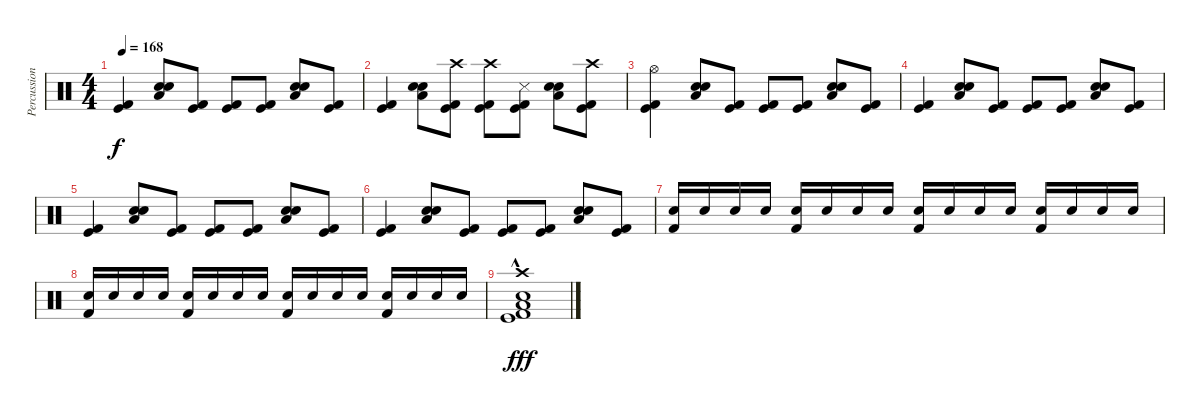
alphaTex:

\track ("Percussion" "Percussion") {instrument percussion}
\staff {score}
\articulation defaults
\ts (4 4)
\tempo 168
\clef neutral
\ks c
("Kick (hit)" "Kick (hit) 2").4{dy f} ("Electric Snare (hit)" "Low Floor Tom (hit)" "Snare (hit) 2").8 ("Kick (hit)" "Kick (hit) 2").8 ("Kick (hit)" "Kick (hit) 2").8 ("Kick (hit)" "Kick (hit) 2").8 ("Electric Snare (hit)" "Low Floor Tom (hit)" "Snare (hit) 2").8 ("Kick (hit)" "Kick (hit) 2").8 |
("Kick (hit)" "Kick (hit) 2").4 ("Electric Snare (hit)" "Low Floor Tom (hit)" "Snare (hit) 2").8 ("Crash high (hit)" "Kick (hit)" "Kick (hit) 2").8 ("Crash high (hit)" "Kick (hit)" "Kick (hit) 2").8 ("Snare (side stick) 3" "Kick (hit)" "Kick (hit) 2").8 ("Electric Snare (hit)" "Low Floor Tom (hit)" "Snare (hit) 2").8 ("Crash high (hit)" "Kick (hit)" "Kick (hit) 2").8 |
("Hi-Hat (open)" "Kick (hit)" "Kick (hit) 2").4 ("Electric Snare (hit)" "Low Floor Tom (hit)" "Snare (hit) 2").8 ("Kick (hit)" "Kick (hit) 2").8 ("Kick (hit)" "Kick (hit) 2").8 ("Kick (hit)" "Kick (hit) 2").8 ("Electric Snare (hit)" "Low Floor Tom (hit)" "Snare (hit) 2").8 ("Kick (hit)" "Kick (hit) 2").8 |
("Kick (hit)" "Kick (hit) 2").4 ("Electric Snare (hit)" "Low Floor Tom (hit)" "Snare (hit) 2").8 ("Kick (hit)" "Kick (hit) 2").8 ("Kick (hit)" "Kick (hit) 2").8 ("Kick (hit)" "Kick (hit) 2").8 ("Electric Snare (hit)" "Low Floor Tom (hit)" "Snare (hit) 2").8 ("Kick (hit)" "Kick (hit) 2").8 |
("Kick (hit)" "Kick (hit) 2").4 ("Electric Snare (hit)" "Low Floor Tom (hit)" "Snare (hit) 2").8 ("Kick (hit)" "Kick (hit) 2").8 ("Kick (hit)" "Kick (hit) 2").8 ("Kick (hit)" "Kick (hit) 2").8 ("Electric Snare (hit)" "Low Floor Tom (hit)" "Snare (hit) 2").8 ("Kick (hit)" "Kick (hit) 2").8 |
("Kick (hit)" "Kick (hit) 2").4 ("Electric Snare (hit)" "Low Floor Tom (hit)" "Snare (hit) 2").8 ("Kick (hit)" "Kick (hit) 2").8 ("Kick (hit)" "Kick (hit) 2").8 ("Kick (hit)" "Kick (hit) 2").8 ("Electric Snare (hit)" "Low Floor Tom (hit)" "Snare (hit) 2").8 ("Kick (hit)" "Kick (hit) 2").8 |
("Snare (hit) 2" "Kick (hit) 2").16 "Snare (hit) 2".16 "Snare (hit) 2".16 "Snare (hit) 2".16 ("Snare (hit) 2" "Kick (hit) 2").16 "Snare (hit) 2".16 "Snare (hit) 2".16 "Snare (hit) 2".16 ("Snare (hit) 2" "Kick (hit) 2").16 "Snare (hit) 2".16 "Snare (hit) 2".16 "Snare (hit) 2".16 ("Snare (hit) 2" "Kick (hit) 2").16 "Snare (hit) 2".16 "Snare (hit) 2".16 "Snare (hit) 2".16 |
("Snare (hit) 2" "Kick (hit) 2").16 "Snare (hit) 2".16 "Snare (hit) 2".16 "Snare (hit) 2".16 ("Snare (hit) 2" "Kick (hit) 2").16 "Snare (hit) 2".16 "Snare (hit) 2".16 "Snare (hit) 2".16 ("Snare (hit) 2" "Kick (hit) 2").16 "Snare (hit) 2".16 "Snare (hit) 2".16 "Snare (hit) 2".16 ("Snare (hit) 2" "Kick (hit) 2").16 "Snare (hit) 2".16 "Snare (hit) 2".16 "Snare (hit) 2".16 |
("Kick (hit) 2" "Crash high (hit)"{hac} "Kick (hit)" "Electric Snare (hit)" "Low Floor Tom (hit)").1{dy fff}
